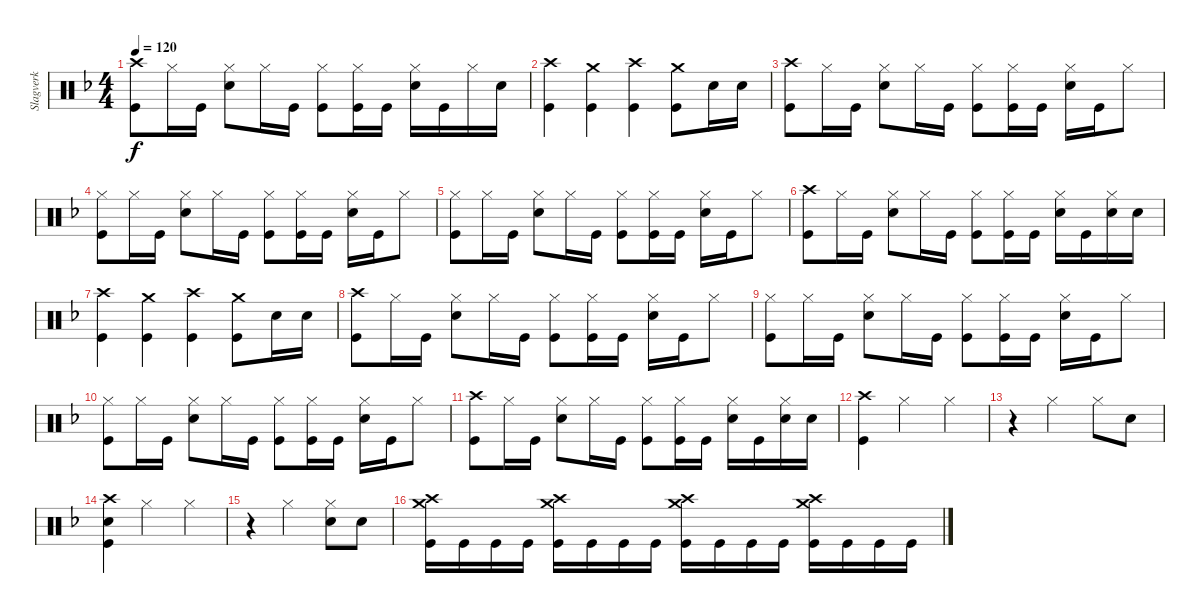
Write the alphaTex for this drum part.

\track ("Slagverk" "Slagverk") {instrument percussion}
\staff {score}
\articulation defaults
\ts (4 4)
\tempo 120
\clef neutral
\ks dminor
("Crash high (hit)" "Kick (hit)").8{dy f} "Hi-Hat (closed)".16 "Kick (hit)".16 ("Hi-Hat (closed)" "Snare (hit) 2").8 "Hi-Hat (closed)".16 "Kick (hit)".16 ("Hi-Hat (closed)" "Kick (hit)").8 ("Hi-Hat (closed)" "Kick (hit)").16 "Kick (hit)".16 ("Hi-Hat (closed)" "Snare (hit) 2").16 "Kick (hit)".16 "Hi-Hat (closed)".16 "Snare (hit) 2".16 |
("Crash high (hit)" "Kick (hit)").4 ("Crash medium (hit)" "Kick (hit)").4 ("Crash high (hit)" "Kick (hit)").4 ("Crash medium (hit)" "Kick (hit)").8 "Snare (hit) 2".16 "Snare (hit) 2".16 |
("Crash high (hit)" "Kick (hit)").8 "Hi-Hat (closed)".16 "Kick (hit)".16 ("Hi-Hat (closed)" "Snare (hit) 2").8 "Hi-Hat (closed)".16 "Kick (hit)".16 ("Hi-Hat (closed)" "Kick (hit)").8 ("Hi-Hat (closed)" "Kick (hit)").16 "Kick (hit)".16 ("Hi-Hat (closed)" "Snare (hit) 2").16 "Kick (hit)".16 "Hi-Hat (closed)".8 |
("Hi-Hat (closed)" "Kick (hit)").8 "Hi-Hat (closed)".16 "Kick (hit)".16 ("Hi-Hat (closed)" "Snare (hit) 2").8 "Hi-Hat (closed)".16 "Kick (hit)".16 ("Hi-Hat (closed)" "Kick (hit)").8 ("Hi-Hat (closed)" "Kick (hit)").16 "Kick (hit)".16 ("Hi-Hat (closed)" "Snare (hit) 2").16 "Kick (hit)".16 "Hi-Hat (closed)".8 |
("Hi-Hat (closed)" "Kick (hit)").8 "Hi-Hat (closed)".16 "Kick (hit)".16 ("Hi-Hat (closed)" "Snare (hit) 2").8 "Hi-Hat (closed)".16 "Kick (hit)".16 ("Hi-Hat (closed)" "Kick (hit)").8 ("Hi-Hat (closed)" "Kick (hit)").16 "Kick (hit)".16 ("Hi-Hat (closed)" "Snare (hit) 2").16 "Kick (hit)".16 "Hi-Hat (closed)".8 |
("Crash high (hit)" "Kick (hit)").8 "Hi-Hat (closed)".16 "Kick (hit)".16 ("Hi-Hat (closed)" "Snare (hit) 2").8 "Hi-Hat (closed)".16 "Kick (hit)".16 ("Hi-Hat (closed)" "Kick (hit)").8 ("Hi-Hat (closed)" "Kick (hit)").16 "Kick (hit)".16 ("Hi-Hat (closed)" "Snare (hit) 2").16 "Kick (hit)".16 ("Hi-Hat (closed)" "Snare (hit) 2").16 "Snare (hit) 2".16 |
("Crash high (hit)" "Kick (hit)").4 ("Crash medium (hit)" "Kick (hit)").4 ("Crash high (hit)" "Kick (hit)").4 ("Crash medium (hit)" "Kick (hit)").8 "Snare (hit) 2".16 "Snare (hit) 2".16 |
("Crash high (hit)" "Kick (hit)").8 "Hi-Hat (closed)".16 "Kick (hit)".16 ("Hi-Hat (closed)" "Snare (hit) 2").8 "Hi-Hat (closed)".16 "Kick (hit)".16 ("Hi-Hat (closed)" "Kick (hit)").8 ("Hi-Hat (closed)" "Kick (hit)").16 "Kick (hit)".16 ("Hi-Hat (closed)" "Snare (hit) 2").16 "Kick (hit)".16 "Hi-Hat (closed)".8 |
("Hi-Hat (closed)" "Kick (hit)").8 "Hi-Hat (closed)".16 "Kick (hit)".16 ("Hi-Hat (closed)" "Snare (hit) 2").8 "Hi-Hat (closed)".16 "Kick (hit)".16 ("Hi-Hat (closed)" "Kick (hit)").8 ("Hi-Hat (closed)" "Kick (hit)").16 "Kick (hit)".16 ("Hi-Hat (closed)" "Snare (hit) 2").16 "Kick (hit)".16 "Hi-Hat (closed)".8 |
("Hi-Hat (closed)" "Kick (hit)").8 "Hi-Hat (closed)".16 "Kick (hit)".16 ("Hi-Hat (closed)" "Snare (hit) 2").8 "Hi-Hat (closed)".16 "Kick (hit)".16 ("Hi-Hat (closed)" "Kick (hit)").8 ("Hi-Hat (closed)" "Kick (hit)").16 "Kick (hit)".16 ("Hi-Hat (closed)" "Snare (hit) 2").16 "Kick (hit)".16 "Hi-Hat (closed)".8 |
("Crash high (hit)" "Kick (hit)").8 "Hi-Hat (closed)".16 "Kick (hit)".16 ("Hi-Hat (closed)" "Snare (hit) 2").8 "Hi-Hat (closed)".16 "Kick (hit)".16 ("Hi-Hat (closed)" "Kick (hit)").8 ("Hi-Hat (closed)" "Kick (hit)").16 "Kick (hit)".16 ("Hi-Hat (closed)" "Snare (hit) 2").16 "Kick (hit)".16 ("Hi-Hat (closed)" "Snare (hit) 2").16 "Snare (hit) 2".16 |
("Crash high (hit)" "Kick (hit)").4 "Hi-Hat (closed)".2 "Hi-Hat (closed)".4 |
r.4 "Hi-Hat (closed)".2 "Hi-Hat (closed)".8 "Snare (hit) 2".8 |
("Crash high (hit)" "Snare (hit) 2" "Kick (hit)").4 "Hi-Hat (closed)".2 "Hi-Hat (closed)".4 |
r.4 "Hi-Hat (closed)".2 ("Hi-Hat (closed)" "Snare (hit) 2").8 "Snare (hit) 2".8 |
("Crash medium (hit)" "Crash high (hit)" "Kick (hit)").16 "Kick (hit)".16 "Kick (hit)".16 "Kick (hit)".16 ("Crash medium (hit)" "Crash high (hit)" "Kick (hit)").16 "Kick (hit)".16 "Kick (hit)".16 "Kick (hit)".16 ("Crash medium (hit)" "Crash high (hit)" "Kick (hit)").16 "Kick (hit)".16 "Kick (hit)".16 "Kick (hit)".16 ("Crash medium (hit)" "Crash high (hit)" "Kick (hit)").16 "Kick (hit)".16 "Kick (hit)".16 "Kick (hit)".16
